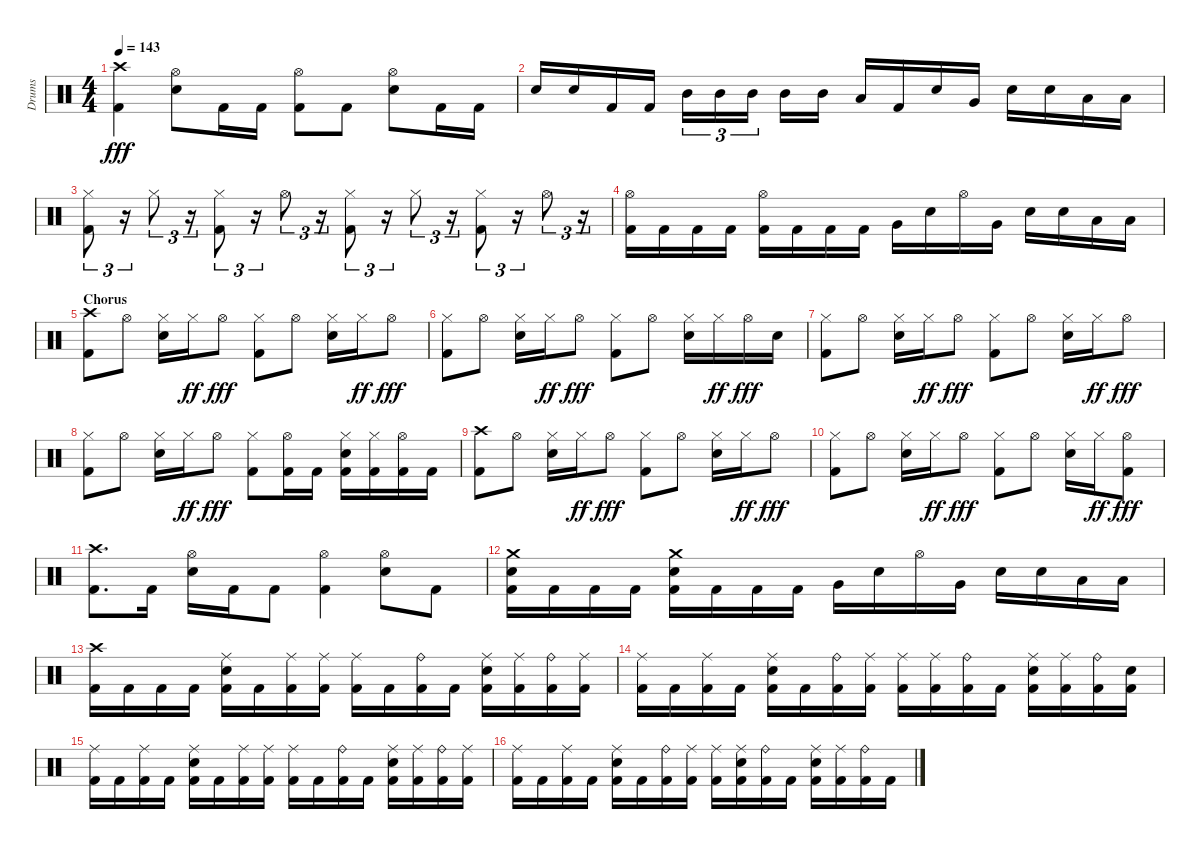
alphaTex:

\track ("Drums" "Drums") {instrument percussion}
\staff {score}
\articulation defaults
\ts (4 4)
\tempo 143
\clef neutral
\ks aminor
("Kick (hit) 2" "Crash high (hit)").4{dy fff} ("Snare (hit) 2" "Hi-Hat (open)").8 "Kick (hit) 2".16 "Kick (hit) 2".16 ("Kick (hit) 2" "Hi-Hat (open)").8 "Kick (hit) 2".8 ("Snare (hit) 2" "Hi-Hat (open)").8 "Kick (hit) 2".16 "Kick (hit) 2".16 |
"Snare (hit) 2".16 "Snare (hit) 2".16 "Kick (hit) 2".16 "Kick (hit) 2".16 "Mid Tom (hit)".16{tu (3 2)} "Mid Tom (hit)".16{tu (3 2)} "Mid Tom (hit)".16{tu (3 2)} "Mid Tom (hit)".16 "Mid Tom (hit)".16 "Low Tom (hit)".16 "Kick (hit) 2".16 "Snare (hit) 2".16 "Very Low Tom (hit)".16 "Snare (hit) 2".16 "Snare (hit) 2".16 "Low Floor Tom (hit)".16 "Low Floor Tom (hit)".16 |
("Kick (hit) 2" "Hi-Hat (closed)").8{tu (3 2)} r.16{tu (3 2)} "Hi-Hat (closed)".8{tu (3 2)} r.16{tu (3 2)} ("Kick (hit) 2" "Hi-Hat (closed)").8{tu (3 2)} r.16{tu (3 2)} "Hi-Hat (open)".8{tu (3 2)} r.16{tu (3 2)} ("Kick (hit) 2" "Hi-Hat (closed)").8{tu (3 2)} r.16{tu (3 2)} "Hi-Hat (closed)".8{tu (3 2)} r.16{tu (3 2)} ("Kick (hit) 2" "Hi-Hat (closed)").8{tu (3 2)} r.16{tu (3 2)} "Hi-Hat (open)".8{tu (3 2)} r.16{tu (3 2)} |
("Kick (hit) 2" "Hi-Hat (open)").16 "Kick (hit) 2".16 "Kick (hit) 2".16 "Kick (hit) 2".16 ("Kick (hit) 2" "Hi-Hat (open)").16 "Kick (hit) 2".16 "Kick (hit) 2".16 "Kick (hit) 2".16 "Very Low Tom (hit)".16 "Snare (hit) 2".16 "Hi-Hat (open)".16 "Very Low Tom (hit)".16 "Snare (hit) 2".16 "Snare (hit) 2".16 "Low Floor Tom (hit)".16 "Low Floor Tom (hit)".16 |
\section ("" "Chorus")
("Kick (hit) 2" "Crash high (hit)").8 "Hi-Hat (open)".8 ("Snare (hit) 2" "Hi-Hat (closed)").16 "Hi-Hat (closed)".16{dy ff} "Hi-Hat (open)".8{dy fff} ("Kick (hit) 2" "Hi-Hat (closed)").8 "Hi-Hat (open)".8 ("Snare (hit) 2" "Hi-Hat (closed)").16 "Hi-Hat (closed)".16{dy ff} "Hi-Hat (open)".8{dy fff} |
("Kick (hit) 2" "Hi-Hat (closed)").8 "Hi-Hat (open)".8 ("Snare (hit) 2" "Hi-Hat (closed)").16 "Hi-Hat (closed)".16{dy ff} "Hi-Hat (open)".8{dy fff} ("Kick (hit) 2" "Hi-Hat (closed)").8 "Hi-Hat (open)".8 ("Snare (hit) 2" "Hi-Hat (closed)").16 "Hi-Hat (closed)".16{dy ff} "Hi-Hat (open)".16{dy fff} "Snare (hit) 2".16 |
("Kick (hit) 2" "Hi-Hat (closed)").8 "Hi-Hat (open)".8 ("Snare (hit) 2" "Hi-Hat (closed)").16 "Hi-Hat (closed)".16{dy ff} "Hi-Hat (open)".8{dy fff} ("Kick (hit) 2" "Hi-Hat (closed)").8 "Hi-Hat (open)".8 ("Snare (hit) 2" "Hi-Hat (closed)").16 "Hi-Hat (closed)".16{dy ff} "Hi-Hat (open)".8{dy fff} |
("Kick (hit) 2" "Hi-Hat (closed)").8 "Hi-Hat (open)".8 ("Snare (hit) 2" "Hi-Hat (closed)").16 "Hi-Hat (closed)".16{dy ff} "Hi-Hat (open)".8{dy fff} ("Kick (hit) 2" "Hi-Hat (closed)").8 ("Kick (hit) 2" "Hi-Hat (open)").16 "Kick (hit) 2".16 ("Kick (hit) 2" "Snare (hit) 2" "Hi-Hat (closed)").16 ("Kick (hit) 2" "Hi-Hat (closed)").16 ("Kick (hit) 2" "Hi-Hat (open)").16 "Kick (hit) 2".16 |
("Kick (hit) 2" "Crash high (hit)").8 "Hi-Hat (open)".8 ("Snare (hit) 2" "Hi-Hat (closed)").16 "Hi-Hat (closed)".16{dy ff} "Hi-Hat (open)".8{dy fff} ("Kick (hit) 2" "Hi-Hat (closed)").8 "Hi-Hat (open)".8 ("Snare (hit) 2" "Hi-Hat (closed)").16 "Hi-Hat (closed)".16{dy ff} "Hi-Hat (open)".8{dy fff} |
("Kick (hit) 2" "Hi-Hat (closed)").8 "Hi-Hat (open)".8 ("Snare (hit) 2" "Hi-Hat (closed)").16 "Hi-Hat (closed)".16{dy ff} "Hi-Hat (open)".8{dy fff} ("Kick (hit) 2" "Hi-Hat (closed)").8 "Hi-Hat (open)".8 ("Snare (hit) 2" "Hi-Hat (closed)").16 "Hi-Hat (closed)".16{dy ff} ("Kick (hit) 2" "Hi-Hat (open)").8{dy fff} |
("Kick (hit) 2" "Crash high (hit)").8{d} "Kick (hit) 2".16 ("Snare (hit) 2" "Hi-Hat (open)").16 "Kick (hit) 2".16 "Kick (hit) 2".8 ("Kick (hit) 2" "Hi-Hat (open)").4 ("Snare (hit) 2" "Hi-Hat (open)").8 "Kick (hit) 2".8 |
("Kick (hit) 2" "Snare (hit) 2" "Crash medium (hit)").16 "Kick (hit) 2".16 "Kick (hit) 2".16 "Kick (hit) 2".16 ("Kick (hit) 2" "Snare (hit) 2" "Crash medium (hit)").16 "Kick (hit) 2".16 "Kick (hit) 2".16 "Kick (hit) 2".16 "Very Low Tom (hit)".16 "Snare (hit) 2".16 "Hi-Hat (open)".16 "Very Low Tom (hit)".16 "Snare (hit) 2".16 "Snare (hit) 2".16 "Low Floor Tom (hit)".16 "Low Floor Tom (hit)".16 |
("Kick (hit) 2" "Crash high (hit)").16 "Kick (hit) 2".16 "Kick (hit) 2".16 "Kick (hit) 2".16 ("Kick (hit) 2" "Snare (hit) 2" "Ride (middle)").16 "Kick (hit) 2".16 ("Kick (hit) 2" "Ride (middle)").16 ("Kick (hit) 2" "Ride (middle)").16 ("Kick (hit) 2" "Ride (middle)").16 "Kick (hit) 2".16 ("Kick (hit) 2" "Ride (bell)").16 "Kick (hit) 2".16 ("Kick (hit) 2" "Snare (hit) 2" "Ride (middle)").16 ("Kick (hit) 2" "Ride (middle)").16 ("Kick (hit) 2" "Ride (bell)").16 ("Kick (hit) 2" "Ride (middle)").16 |
("Kick (hit) 2" "Ride (middle)").16 "Kick (hit) 2".16 ("Kick (hit) 2" "Ride (middle)").16 "Kick (hit) 2".16 ("Kick (hit) 2" "Snare (hit) 2" "Ride (middle)").16 "Kick (hit) 2".16 ("Kick (hit) 2" "Ride (bell)").16 ("Kick (hit) 2" "Ride (middle)").16 ("Kick (hit) 2" "Ride (middle)").16 ("Kick (hit) 2" "Ride (middle)").16 ("Kick (hit) 2" "Ride (bell)").16 "Kick (hit) 2".16 ("Kick (hit) 2" "Snare (hit) 2" "Ride (middle)").16 ("Kick (hit) 2" "Ride (middle)").16 ("Kick (hit) 2" "Ride (bell)").16 ("Kick (hit) 2" "Snare (hit) 2").16 |
("Kick (hit) 2" "Ride (middle)").16 "Kick (hit) 2".16 ("Kick (hit) 2" "Ride (middle)").16 "Kick (hit) 2".16 ("Kick (hit) 2" "Snare (hit) 2" "Ride (middle)").16 "Kick (hit) 2".16 ("Kick (hit) 2" "Ride (middle)").16 ("Kick (hit) 2" "Ride (middle)").16 ("Kick (hit) 2" "Ride (middle)").16 "Kick (hit) 2".16 ("Kick (hit) 2" "Ride (bell)").16 "Kick (hit) 2".16 ("Kick (hit) 2" "Snare (hit) 2" "Ride (middle)").16 ("Kick (hit) 2" "Ride (middle)").16 ("Kick (hit) 2" "Ride (bell)").16 ("Kick (hit) 2" "Ride (middle)").16 |
("Kick (hit) 2" "Ride (middle)").16 "Kick (hit) 2".16 ("Kick (hit) 2" "Ride (middle)").16 "Kick (hit) 2".16 ("Kick (hit) 2" "Snare (hit) 2" "Ride (middle)").16 "Kick (hit) 2".16 ("Kick (hit) 2" "Ride (bell)").16 ("Kick (hit) 2" "Ride (middle)").16 ("Kick (hit) 2" "Ride (middle)").16 ("Kick (hit) 2" "Snare (hit) 2" "Ride (middle)").16 ("Kick (hit) 2" "Ride (bell)").16 "Kick (hit) 2".16 ("Kick (hit) 2" "Snare (hit) 2" "Ride (middle)").16 ("Kick (hit) 2" "Ride (middle)").16 ("Kick (hit) 2" "Ride (bell)").16 "Kick (hit) 2".16
